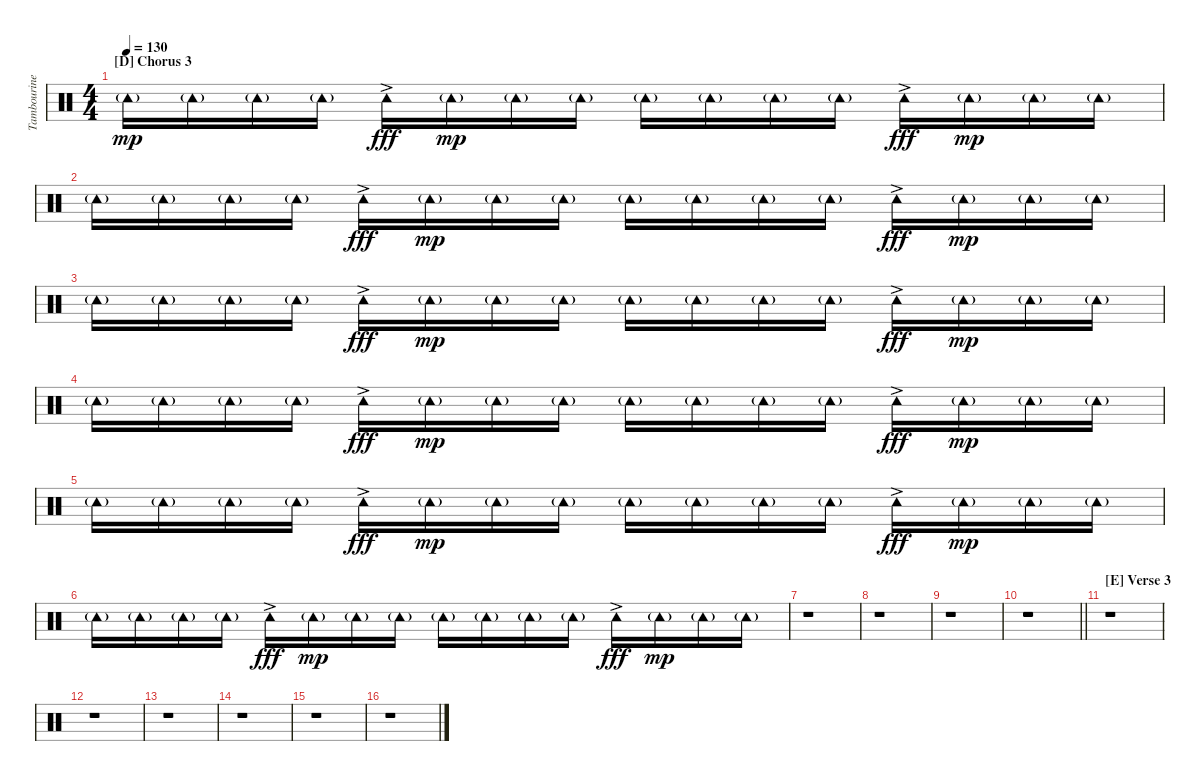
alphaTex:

\track ("Tambourine (?)" "Tambourine") {instrument percussion}
\staff {score}
\articulation defaults
\ts (4 4)
\section ("" "[D] Chorus 3")
\tempo 130
\clef neutral
\ks c "Tambourine (hit)"{g}.16{dy mp} "Tambourine (hit)"{g}.16 "Tambourine (hit)"{g}.16 "Tambourine (hit)"{g}.16 "Tambourine (hit)"{ac}.16{dy fff} "Tambourine (hit)"{g}.16{dy mp} "Tambourine (hit)"{g}.16 "Tambourine (hit)"{g}.16 "Tambourine (hit)"{g}.16 "Tambourine (hit)"{g}.16 "Tambourine (hit)"{g}.16 "Tambourine (hit)"{g}.16 "Tambourine (hit)"{ac}.16{dy fff} "Tambourine (hit)"{g}.16{dy mp} "Tambourine (hit)"{g}.16 "Tambourine (hit)"{g}.16
|
"Tambourine (hit)"{g}.16 "Tambourine (hit)"{g}.16 "Tambourine (hit)"{g}.16 "Tambourine (hit)"{g}.16 "Tambourine (hit)"{ac}.16{dy fff} "Tambourine (hit)"{g}.16{dy mp} "Tambourine (hit)"{g}.16 "Tambourine (hit)"{g}.16 "Tambourine (hit)"{g}.16 "Tambourine (hit)"{g}.16 "Tambourine (hit)"{g}.16 "Tambourine (hit)"{g}.16 "Tambourine (hit)"{ac}.16{dy fff} "Tambourine (hit)"{g}.16{dy mp} "Tambourine (hit)"{g}.16 "Tambourine (hit)"{g}.16 |
"Tambourine (hit)"{g}.16 "Tambourine (hit)"{g}.16 "Tambourine (hit)"{g}.16 "Tambourine (hit)"{g}.16 "Tambourine (hit)"{ac}.16{dy fff} "Tambourine (hit)"{g}.16{dy mp} "Tambourine (hit)"{g}.16 "Tambourine (hit)"{g}.16 "Tambourine (hit)"{g}.16 "Tambourine (hit)"{g}.16 "Tambourine (hit)"{g}.16 "Tambourine (hit)"{g}.16 "Tambourine (hit)"{ac}.16{dy fff} "Tambourine (hit)"{g}.16{dy mp} "Tambourine (hit)"{g}.16 "Tambourine (hit)"{g}.16 |
"Tambourine (hit)"{g}.16 "Tambourine (hit)"{g}.16 "Tambourine (hit)"{g}.16 "Tambourine (hit)"{g}.16 "Tambourine (hit)"{ac}.16{dy fff} "Tambourine (hit)"{g}.16{dy mp} "Tambourine (hit)"{g}.16 "Tambourine (hit)"{g}.16 "Tambourine (hit)"{g}.16 "Tambourine (hit)"{g}.16 "Tambourine (hit)"{g}.16 "Tambourine (hit)"{g}.16 "Tambourine (hit)"{ac}.16{dy fff} "Tambourine (hit)"{g}.16{dy mp} "Tambourine (hit)"{g}.16 "Tambourine (hit)"{g}.16 |
"Tambourine (hit)"{g}.16 "Tambourine (hit)"{g}.16 "Tambourine (hit)"{g}.16 "Tambourine (hit)"{g}.16 "Tambourine (hit)"{ac}.16{dy fff} "Tambourine (hit)"{g}.16{dy mp} "Tambourine (hit)"{g}.16 "Tambourine (hit)"{g}.16 "Tambourine (hit)"{g}.16 "Tambourine (hit)"{g}.16 "Tambourine (hit)"{g}.16 "Tambourine (hit)"{g}.16 "Tambourine (hit)"{ac}.16{dy fff} "Tambourine (hit)"{g}.16{dy mp} "Tambourine (hit)"{g}.16 "Tambourine (hit)"{g}.16 |
"Tambourine (hit)"{g}.16 "Tambourine (hit)"{g}.16 "Tambourine (hit)"{g}.16 "Tambourine (hit)"{g}.16 "Tambourine (hit)"{ac}.16{dy fff} "Tambourine (hit)"{g}.16{dy mp} "Tambourine (hit)"{g}.16 "Tambourine (hit)"{g}.16 "Tambourine (hit)"{g}.16 "Tambourine (hit)"{g}.16 "Tambourine (hit)"{g}.16 "Tambourine (hit)"{g}.16 "Tambourine (hit)"{ac}.16{dy fff} "Tambourine (hit)"{g}.16{dy mp} "Tambourine (hit)"{g}.16 "Tambourine (hit)"{g}.16 |
r.1 |
r.1 |
r.1 |
\barLineRight lightlight
r.1 |
\section ("" "[E] Verse 3")
r.1 |
r.1 |
r.1 |
r.1 |
r.1 |
r.1
